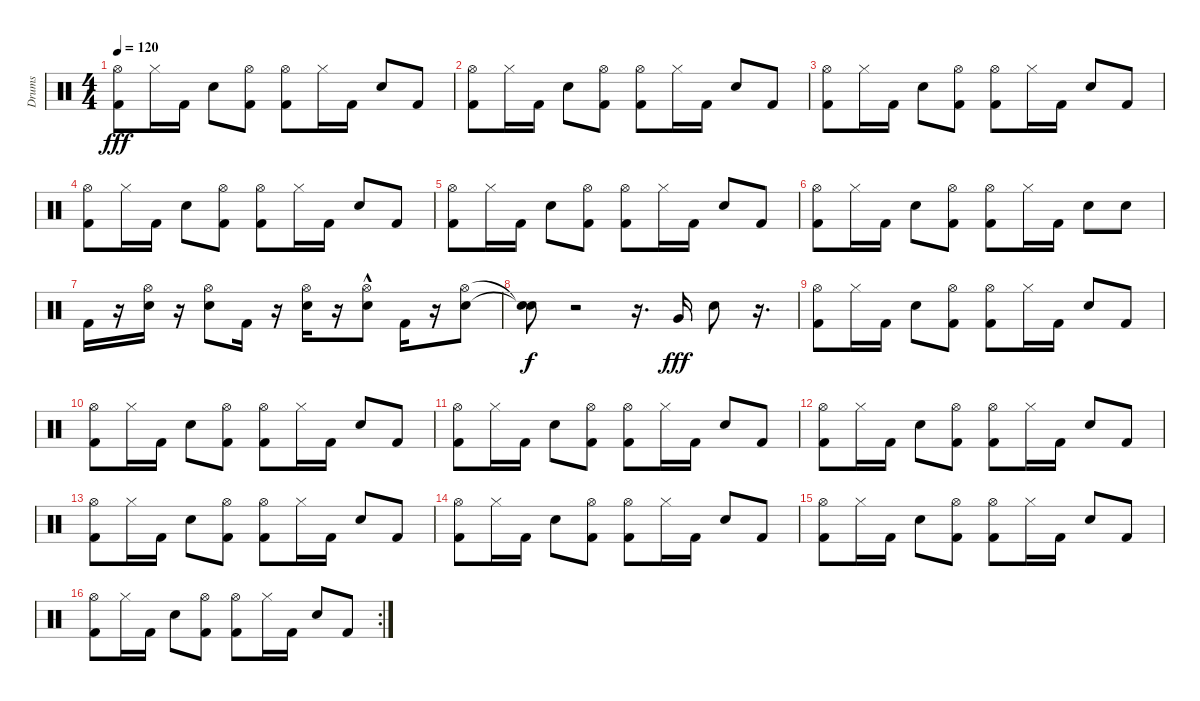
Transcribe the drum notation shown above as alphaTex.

\track ("Drums" "Drums") {instrument percussion}
\staff {score}
\articulation defaults
\ts (4 4)
\tempo 120
\clef neutral
\ks c
("Hi-Hat (open)" "Kick (hit) 2").8{dy fff} "Hi-Hat (closed)".16 "Kick (hit) 2".16 "Electric Snare (hit)".8 ("Hi-Hat (open)" "Kick (hit) 2").8 ("Hi-Hat (open)" "Kick (hit) 2").8 "Hi-Hat (closed)".16 "Kick (hit) 2".16 "Electric Snare (hit)".8 "Kick (hit) 2".8 |
("Hi-Hat (open)" "Kick (hit) 2").8 "Hi-Hat (closed)".16 "Kick (hit) 2".16 "Electric Snare (hit)".8 ("Hi-Hat (open)" "Kick (hit) 2").8 ("Hi-Hat (open)" "Kick (hit) 2").8 "Hi-Hat (closed)".16 "Kick (hit) 2".16 "Electric Snare (hit)".8 "Kick (hit) 2".8 |
("Hi-Hat (open)" "Kick (hit) 2").8 "Hi-Hat (closed)".16 "Kick (hit) 2".16 "Electric Snare (hit)".8 ("Hi-Hat (open)" "Kick (hit) 2").8 ("Hi-Hat (open)" "Kick (hit) 2").8 "Hi-Hat (closed)".16 "Kick (hit) 2".16 "Electric Snare (hit)".8 "Kick (hit) 2".8 |
("Hi-Hat (open)" "Kick (hit) 2").8 "Hi-Hat (closed)".16 "Kick (hit) 2".16 "Electric Snare (hit)".8 ("Hi-Hat (open)" "Kick (hit) 2").8 ("Hi-Hat (open)" "Kick (hit) 2").8 "Hi-Hat (closed)".16 "Kick (hit) 2".16 "Electric Snare (hit)".8 "Kick (hit) 2".8 |
("Hi-Hat (open)" "Kick (hit) 2").8 "Hi-Hat (closed)".16 "Kick (hit) 2".16 "Electric Snare (hit)".8 ("Hi-Hat (open)" "Kick (hit) 2").8 ("Hi-Hat (open)" "Kick (hit) 2").8 "Hi-Hat (closed)".16 "Kick (hit) 2".16 "Electric Snare (hit)".8 "Kick (hit) 2".8 |
("Hi-Hat (open)" "Kick (hit) 2").8 "Hi-Hat (closed)".16 "Kick (hit) 2".16 "Electric Snare (hit)".8 ("Hi-Hat (open)" "Kick (hit) 2").8 ("Hi-Hat (open)" "Kick (hit) 2").8 "Hi-Hat (closed)".16 "Kick (hit) 2".16 "Electric Snare (hit)".8 "Electric Snare (hit)".8 |
"Kick (hit) 2".16 r.16 ("Hi-Hat (open)" "Electric Snare (hit)").16 r.16 ("Hi-Hat (open)" "Electric Snare (hit)").8 "Kick (hit) 2".16 r.16 ("Hi-Hat (open)" "Electric Snare (hit)").16 r.16 ("Hi-Hat (open)" "Electric Snare (hit)"{hac}).8 "Kick (hit) 2".16 r.16 ("Hi-Hat (open)" "Electric Snare (hit)").8 |
("Snare (hit)"{t} "Snare (hit)"{t}).8{dy f} r.2 r.16{d} "Very Low Tom (hit)".16{dy fff} "Electric Snare (hit)".8 r.16{d} |
("Hi-Hat (open)" "Kick (hit) 2").8 "Hi-Hat (closed)".16 "Kick (hit) 2".16 "Electric Snare (hit)".8 ("Hi-Hat (open)" "Kick (hit) 2").8 ("Hi-Hat (open)" "Kick (hit) 2").8 "Hi-Hat (closed)".16 "Kick (hit) 2".16 "Electric Snare (hit)".8 "Kick (hit) 2".8 |
("Hi-Hat (open)" "Kick (hit) 2").8 "Hi-Hat (closed)".16 "Kick (hit) 2".16 "Electric Snare (hit)".8 ("Hi-Hat (open)" "Kick (hit) 2").8 ("Hi-Hat (open)" "Kick (hit) 2").8 "Hi-Hat (closed)".16 "Kick (hit) 2".16 "Electric Snare (hit)".8 "Kick (hit) 2".8 |
("Hi-Hat (open)" "Kick (hit) 2").8 "Hi-Hat (closed)".16 "Kick (hit) 2".16 "Electric Snare (hit)".8 ("Hi-Hat (open)" "Kick (hit) 2").8 ("Hi-Hat (open)" "Kick (hit) 2").8 "Hi-Hat (closed)".16 "Kick (hit) 2".16 "Electric Snare (hit)".8 "Kick (hit) 2".8 |
("Hi-Hat (open)" "Kick (hit) 2").8 "Hi-Hat (closed)".16 "Kick (hit) 2".16 "Electric Snare (hit)".8 ("Hi-Hat (open)" "Kick (hit) 2").8 ("Hi-Hat (open)" "Kick (hit) 2").8 "Hi-Hat (closed)".16 "Kick (hit) 2".16 "Electric Snare (hit)".8 "Kick (hit) 2".8 |
("Hi-Hat (open)" "Kick (hit) 2").8 "Hi-Hat (closed)".16 "Kick (hit) 2".16 "Electric Snare (hit)".8 ("Hi-Hat (open)" "Kick (hit) 2").8 ("Hi-Hat (open)" "Kick (hit) 2").8 "Hi-Hat (closed)".16 "Kick (hit) 2".16 "Electric Snare (hit)".8 "Kick (hit) 2".8 |
("Hi-Hat (open)" "Kick (hit) 2").8 "Hi-Hat (closed)".16 "Kick (hit) 2".16 "Electric Snare (hit)".8 ("Hi-Hat (open)" "Kick (hit) 2").8 ("Hi-Hat (open)" "Kick (hit) 2").8 "Hi-Hat (closed)".16 "Kick (hit) 2".16 "Electric Snare (hit)".8 "Kick (hit) 2".8 |
("Hi-Hat (open)" "Kick (hit) 2").8 "Hi-Hat (closed)".16 "Kick (hit) 2".16 "Electric Snare (hit)".8 ("Hi-Hat (open)" "Kick (hit) 2").8 ("Hi-Hat (open)" "Kick (hit) 2").8 "Hi-Hat (closed)".16 "Kick (hit) 2".16 "Electric Snare (hit)".8 "Kick (hit) 2".8 |
\rc 2
("Hi-Hat (open)" "Kick (hit) 2").8 "Hi-Hat (closed)".16 "Kick (hit) 2".16 "Electric Snare (hit)".8 ("Hi-Hat (open)" "Kick (hit) 2").8 ("Hi-Hat (open)" "Kick (hit) 2").8 "Hi-Hat (closed)".16 "Kick (hit) 2".16 "Electric Snare (hit)".8 "Kick (hit) 2".8
